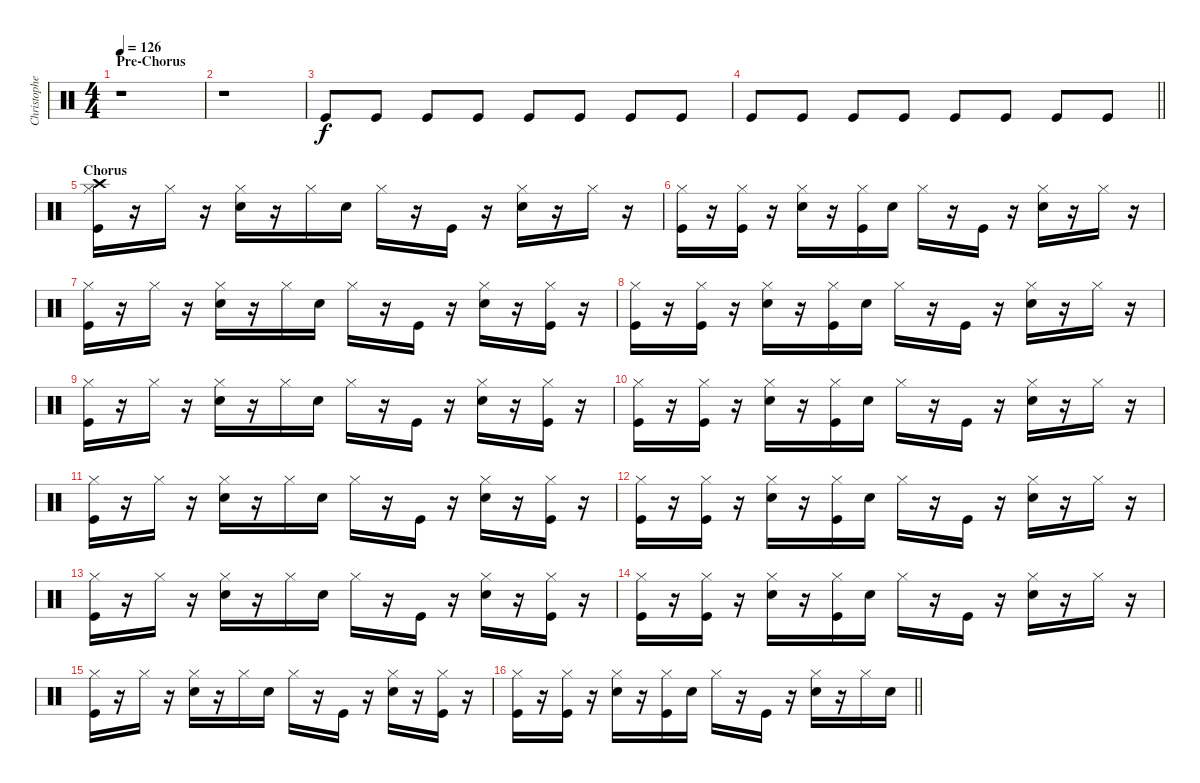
\track ("Christopher - Drums" "Christophe") {mute instrument percussion}
\staff {score}
\articulation defaults
\ts (4 4)
\section ("" "Pre-Chorus")
\tempo 126
\clef neutral
\ks c
r.1{dy f} |
r.1 |
"Kick (hit)".8 "Kick (hit)".8 "Kick (hit)".8 "Kick (hit)".8 "Kick (hit)".8 "Kick (hit)".8 "Kick (hit)".8 "Kick (hit)".8 |
\barLineRight lightlight "Kick (hit)".8 "Kick (hit)".8 "Kick (hit)".8 "Kick (hit)".8 "Kick (hit)".8 "Kick (hit)".8 "Kick (hit)".8 "Kick (hit)".8
|
\section ("" "Chorus")
("Crash high (hit)" "Hi-Hat (closed)" "Kick (hit)").16 r.16 "Hi-Hat (closed)".16 r.16 ("Hi-Hat (closed)" "Snare (hit) 2").16 r.16 "Hi-Hat (closed)".16 "Snare (hit) 2".16 "Hi-Hat (closed)".16 r.16 "Kick (hit)".16 r.16 ("Hi-Hat (closed)" "Snare (hit) 2").16 r.16 "Hi-Hat (closed)".16 r.16 |
("Hi-Hat (closed)" "Kick (hit)").16 r.16 ("Hi-Hat (closed)" "Kick (hit)").16 r.16 ("Hi-Hat (closed)" "Snare (hit) 2").16 r.16 ("Hi-Hat (closed)" "Kick (hit)").16 "Snare (hit) 2".16 "Hi-Hat (closed)".16 r.16 "Kick (hit)".16 r.16 ("Hi-Hat (closed)" "Snare (hit) 2").16 r.16 "Hi-Hat (closed)".16 r.16 |
("Hi-Hat (closed)" "Kick (hit)").16 r.16 "Hi-Hat (closed)".16 r.16 ("Hi-Hat (closed)" "Snare (hit) 2").16 r.16 "Hi-Hat (closed)".16 "Snare (hit) 2".16 "Hi-Hat (closed)".16 r.16 "Kick (hit)".16 r.16 ("Hi-Hat (closed)" "Snare (hit) 2").16 r.16 ("Hi-Hat (closed)" "Kick (hit)").16 r.16 |
("Hi-Hat (closed)" "Kick (hit)").16 r.16 ("Hi-Hat (closed)" "Kick (hit)").16 r.16 ("Hi-Hat (closed)" "Snare (hit) 2").16 r.16 ("Hi-Hat (closed)" "Kick (hit)").16 "Snare (hit) 2".16 "Hi-Hat (closed)".16 r.16 "Kick (hit)".16 r.16 ("Hi-Hat (closed)" "Snare (hit) 2").16 r.16 "Hi-Hat (closed)".16 r.16 |
("Hi-Hat (closed)" "Kick (hit)").16 r.16 "Hi-Hat (closed)".16 r.16 ("Hi-Hat (closed)" "Snare (hit) 2").16 r.16 "Hi-Hat (closed)".16 "Snare (hit) 2".16 "Hi-Hat (closed)".16 r.16 "Kick (hit)".16 r.16 ("Hi-Hat (closed)" "Snare (hit) 2").16 r.16 ("Hi-Hat (closed)" "Kick (hit)").16 r.16 |
("Hi-Hat (closed)" "Kick (hit)").16 r.16 ("Hi-Hat (closed)" "Kick (hit)").16 r.16 ("Hi-Hat (closed)" "Snare (hit) 2").16 r.16 ("Hi-Hat (closed)" "Kick (hit)").16 "Snare (hit) 2".16 "Hi-Hat (closed)".16 r.16 "Kick (hit)".16 r.16 ("Hi-Hat (closed)" "Snare (hit) 2").16 r.16 "Hi-Hat (closed)".16 r.16 |
("Hi-Hat (closed)" "Kick (hit)").16 r.16 "Hi-Hat (closed)".16 r.16 ("Hi-Hat (closed)" "Snare (hit) 2").16 r.16 "Hi-Hat (closed)".16 "Snare (hit) 2".16 "Hi-Hat (closed)".16 r.16 "Kick (hit)".16 r.16 ("Hi-Hat (closed)" "Snare (hit) 2").16 r.16 ("Hi-Hat (closed)" "Kick (hit)").16 r.16 |
("Hi-Hat (closed)" "Kick (hit)").16 r.16 ("Hi-Hat (closed)" "Kick (hit)").16 r.16 ("Hi-Hat (closed)" "Snare (hit) 2").16 r.16 ("Hi-Hat (closed)" "Kick (hit)").16 "Snare (hit) 2".16 "Hi-Hat (closed)".16 r.16 "Kick (hit)".16 r.16 ("Hi-Hat (closed)" "Snare (hit) 2").16 r.16 "Hi-Hat (closed)".16 r.16 |
("Hi-Hat (closed)" "Kick (hit)").16 r.16 "Hi-Hat (closed)".16 r.16 ("Hi-Hat (closed)" "Snare (hit) 2").16 r.16 "Hi-Hat (closed)".16 "Snare (hit) 2".16 "Hi-Hat (closed)".16 r.16 "Kick (hit)".16 r.16 ("Hi-Hat (closed)" "Snare (hit) 2").16 r.16 ("Hi-Hat (closed)" "Kick (hit)").16 r.16 |
("Hi-Hat (closed)" "Kick (hit)").16 r.16 ("Hi-Hat (closed)" "Kick (hit)").16 r.16 ("Hi-Hat (closed)" "Snare (hit) 2").16 r.16 ("Hi-Hat (closed)" "Kick (hit)").16 "Snare (hit) 2".16 "Hi-Hat (closed)".16 r.16 "Kick (hit)".16 r.16 ("Hi-Hat (closed)" "Snare (hit) 2").16 r.16 "Hi-Hat (closed)".16 r.16 |
("Hi-Hat (closed)" "Kick (hit)").16 r.16 "Hi-Hat (closed)".16 r.16 ("Hi-Hat (closed)" "Snare (hit) 2").16 r.16 "Hi-Hat (closed)".16 "Snare (hit) 2".16 "Hi-Hat (closed)".16 r.16 "Kick (hit)".16 r.16 ("Hi-Hat (closed)" "Snare (hit) 2").16 r.16 ("Hi-Hat (closed)" "Kick (hit)").16 r.16 |
\barLineRight lightlight
("Hi-Hat (closed)" "Kick (hit)").16 r.16 ("Hi-Hat (closed)" "Kick (hit)").16 r.16 ("Hi-Hat (closed)" "Snare (hit) 2").16 r.16 ("Hi-Hat (closed)" "Kick (hit)").16 "Snare (hit) 2".16 "Hi-Hat (closed)".16 r.16 "Kick (hit)".16 r.16 ("Hi-Hat (closed)" "Snare (hit) 2").16 r.16 "Hi-Hat (closed)".16 "Snare (hit) 2".16
